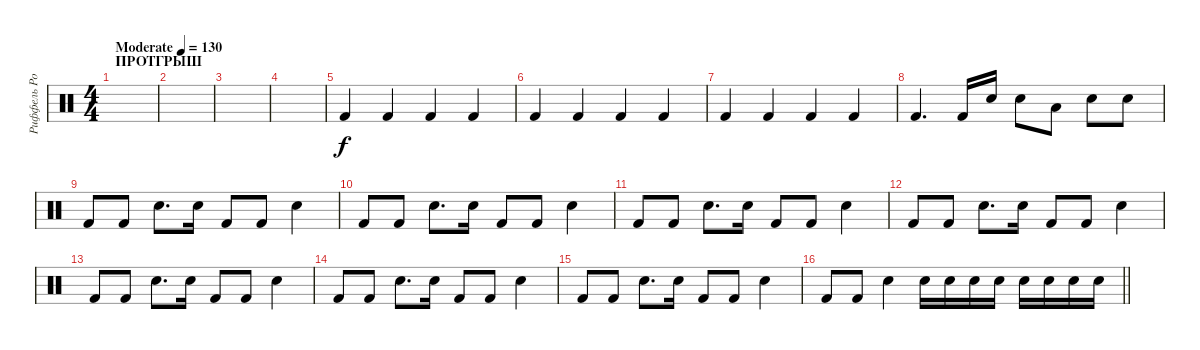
\track ("Риффель Роман(Главные)" "Риффель Ро") {instrument percussion}
\staff {score}
\articulation defaults
\ts (4 4)
\section ("" "ПРОТГРЫШ")
\tempo (130 "Moderate")
\clef neutral
\ks c
|
|
|
|
"Kick (hit) 2".4 "Kick (hit) 2".4 "Kick (hit) 2".4 "Kick (hit) 2".4 |
"Kick (hit) 2".4 "Kick (hit) 2".4 "Kick (hit) 2".4 "Kick (hit) 2".4 |
"Kick (hit) 2".4 "Kick (hit) 2".4 "Kick (hit) 2".4 "Kick (hit) 2".4 |
"Kick (hit) 2".4{d} "Kick (hit) 2".16 "Electric Snare (hit)".16 "Electric Snare (hit)".8 "Low Tom (hit)".8 "Electric Snare (hit)".8 "Electric Snare (hit)".8 |
"Kick (hit) 2".8 "Kick (hit) 2".8 "Electric Snare (hit)".8{d} "Electric Snare (hit)".16 "Kick (hit) 2".8 "Kick (hit) 2".8 "Electric Snare (hit)".4 |
"Kick (hit) 2".8 "Kick (hit) 2".8 "Electric Snare (hit)".8{d} "Electric Snare (hit)".16 "Kick (hit) 2".8 "Kick (hit) 2".8 "Electric Snare (hit)".4 |
"Kick (hit) 2".8 "Kick (hit) 2".8 "Electric Snare (hit)".8{d} "Electric Snare (hit)".16 "Kick (hit) 2".8 "Kick (hit) 2".8 "Electric Snare (hit)".4 |
"Kick (hit) 2".8 "Kick (hit) 2".8 "Electric Snare (hit)".8{d} "Electric Snare (hit)".16 "Kick (hit) 2".8 "Kick (hit) 2".8 "Electric Snare (hit)".4 |
"Kick (hit) 2".8 "Kick (hit) 2".8 "Electric Snare (hit)".8{d} "Electric Snare (hit)".16 "Kick (hit) 2".8 "Kick (hit) 2".8 "Electric Snare (hit)".4 |
"Kick (hit) 2".8 "Kick (hit) 2".8 "Electric Snare (hit)".8{d} "Electric Snare (hit)".16 "Kick (hit) 2".8 "Kick (hit) 2".8 "Electric Snare (hit)".4 |
"Kick (hit) 2".8 "Kick (hit) 2".8 "Electric Snare (hit)".8{d} "Electric Snare (hit)".16 "Kick (hit) 2".8 "Kick (hit) 2".8 "Electric Snare (hit)".4 |
\barLineRight lightlight "Kick (hit) 2".8 "Kick (hit) 2".8 "Electric Snare (hit)".4 "Electric Snare (hit)".16 "Electric Snare (hit)".16 "Electric Snare (hit)".16 "Electric Snare (hit)".16 "Electric Snare (hit)".16 "Electric Snare (hit)".16 "Electric Snare (hit)".16 "Electric Snare (hit)".16
